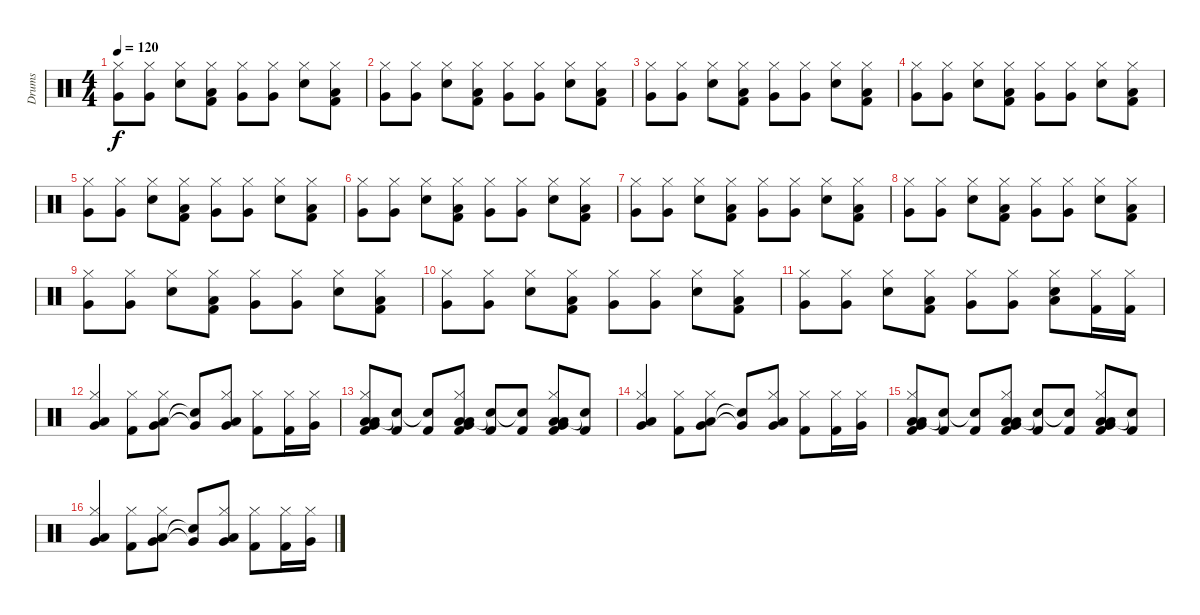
\track ("Drums" "Drums") {instrument percussion}
\staff {score}
\articulation defaults
\ts (4 4)
\tempo 120
\clef neutral
\ks c
("Very Low Tom (hit)" "Hi-Hat (closed)").8{dy f} ("Very Low Tom (hit)" "Hi-Hat (closed)").8 ("Snare (hit) 2" "Hi-Hat (closed)").8 ("Low Floor Tom (hit)" "Kick (hit) 2" "Hi-Hat (closed)").8 ("Very Low Tom (hit)" "Hi-Hat (closed)").8 ("Very Low Tom (hit)" "Hi-Hat (closed)").8 ("Snare (hit) 2" "Hi-Hat (closed)").8 ("Low Floor Tom (hit)" "Kick (hit) 2" "Hi-Hat (closed)").8 |
("Very Low Tom (hit)" "Hi-Hat (closed)").8 ("Very Low Tom (hit)" "Hi-Hat (closed)").8 ("Snare (hit) 2" "Hi-Hat (closed)").8 ("Low Floor Tom (hit)" "Kick (hit) 2" "Hi-Hat (closed)").8 ("Very Low Tom (hit)" "Hi-Hat (closed)").8 ("Very Low Tom (hit)" "Hi-Hat (closed)").8 ("Snare (hit) 2" "Hi-Hat (closed)").8 ("Low Floor Tom (hit)" "Kick (hit) 2" "Hi-Hat (closed)").8 |
("Very Low Tom (hit)" "Hi-Hat (closed)").8 ("Very Low Tom (hit)" "Hi-Hat (closed)").8 ("Snare (hit) 2" "Hi-Hat (closed)").8 ("Low Floor Tom (hit)" "Kick (hit) 2" "Hi-Hat (closed)").8 ("Very Low Tom (hit)" "Hi-Hat (closed)").8 ("Very Low Tom (hit)" "Hi-Hat (closed)").8 ("Snare (hit) 2" "Hi-Hat (closed)").8 ("Low Floor Tom (hit)" "Kick (hit) 2" "Hi-Hat (closed)").8 |
("Very Low Tom (hit)" "Hi-Hat (closed)").8 ("Very Low Tom (hit)" "Hi-Hat (closed)").8 ("Snare (hit) 2" "Hi-Hat (closed)").8 ("Low Floor Tom (hit)" "Kick (hit) 2" "Hi-Hat (closed)").8 ("Very Low Tom (hit)" "Hi-Hat (closed)").8 ("Very Low Tom (hit)" "Hi-Hat (closed)").8 ("Snare (hit) 2" "Hi-Hat (closed)").8 ("Low Floor Tom (hit)" "Kick (hit) 2" "Hi-Hat (closed)").8 |
("Very Low Tom (hit)" "Hi-Hat (closed)").8 ("Very Low Tom (hit)" "Hi-Hat (closed)").8 ("Snare (hit) 2" "Hi-Hat (closed)").8 ("Low Floor Tom (hit)" "Kick (hit) 2" "Hi-Hat (closed)").8 ("Very Low Tom (hit)" "Hi-Hat (closed)").8 ("Very Low Tom (hit)" "Hi-Hat (closed)").8 ("Snare (hit) 2" "Hi-Hat (closed)").8 ("Low Floor Tom (hit)" "Kick (hit) 2" "Hi-Hat (closed)").8 |
("Very Low Tom (hit)" "Hi-Hat (closed)").8 ("Very Low Tom (hit)" "Hi-Hat (closed)").8 ("Snare (hit) 2" "Hi-Hat (closed)").8 ("Low Floor Tom (hit)" "Kick (hit) 2" "Hi-Hat (closed)").8 ("Very Low Tom (hit)" "Hi-Hat (closed)").8 ("Very Low Tom (hit)" "Hi-Hat (closed)").8 ("Snare (hit) 2" "Hi-Hat (closed)").8 ("Low Floor Tom (hit)" "Kick (hit) 2" "Hi-Hat (closed)").8 |
("Very Low Tom (hit)" "Hi-Hat (closed)").8 ("Very Low Tom (hit)" "Hi-Hat (closed)").8 ("Snare (hit) 2" "Hi-Hat (closed)").8 ("Low Floor Tom (hit)" "Kick (hit) 2" "Hi-Hat (closed)").8 ("Very Low Tom (hit)" "Hi-Hat (closed)").8 ("Very Low Tom (hit)" "Hi-Hat (closed)").8 ("Snare (hit) 2" "Hi-Hat (closed)").8 ("Low Floor Tom (hit)" "Kick (hit) 2" "Hi-Hat (closed)").8 |
("Very Low Tom (hit)" "Hi-Hat (closed)").8 ("Very Low Tom (hit)" "Hi-Hat (closed)").8 ("Snare (hit) 2" "Hi-Hat (closed)").8 ("Low Floor Tom (hit)" "Kick (hit) 2" "Hi-Hat (closed)").8 ("Very Low Tom (hit)" "Hi-Hat (closed)").8 ("Very Low Tom (hit)" "Hi-Hat (closed)").8 ("Snare (hit) 2" "Hi-Hat (closed)").8 ("Low Floor Tom (hit)" "Kick (hit) 2" "Hi-Hat (closed)").8 |
("Very Low Tom (hit)" "Hi-Hat (closed)").8 ("Very Low Tom (hit)" "Hi-Hat (closed)").8 ("Snare (hit) 2" "Hi-Hat (closed)").8 ("Low Floor Tom (hit)" "Kick (hit) 2" "Hi-Hat (closed)").8 ("Very Low Tom (hit)" "Hi-Hat (closed)").8 ("Very Low Tom (hit)" "Hi-Hat (closed)").8 ("Snare (hit) 2" "Hi-Hat (closed)").8 ("Low Floor Tom (hit)" "Kick (hit) 2" "Hi-Hat (closed)").8 |
("Very Low Tom (hit)" "Hi-Hat (closed)").8 ("Very Low Tom (hit)" "Hi-Hat (closed)").8 ("Snare (hit) 2" "Hi-Hat (closed)").8 ("Low Floor Tom (hit)" "Kick (hit) 2" "Hi-Hat (closed)").8 ("Very Low Tom (hit)" "Hi-Hat (closed)").8 ("Very Low Tom (hit)" "Hi-Hat (closed)").8 ("Snare (hit) 2" "Hi-Hat (closed)").8 ("Low Floor Tom (hit)" "Kick (hit) 2" "Hi-Hat (closed)").8 |
("Very Low Tom (hit)" "Hi-Hat (closed)").8 ("Very Low Tom (hit)" "Hi-Hat (closed)").8 ("Snare (hit) 2" "Hi-Hat (closed)").8 ("Low Floor Tom (hit)" "Kick (hit) 2" "Hi-Hat (closed)").8 ("Very Low Tom (hit)" "Hi-Hat (closed)").8 ("Very Low Tom (hit)" "Hi-Hat (closed)").8 ("Low Floor Tom (hit)" "Snare (hit) 2" "Hi-Hat (closed)").8 ("Kick (hit) 2" "Hi-Hat (closed)").16 ("Kick (hit) 2" "Hi-Hat (closed)").16 |
("Low Floor Tom (hit)" "Very Low Tom (hit)" "Hi-Hat (closed)").4 ("Kick (hit) 2" "Hi-Hat (closed)").8 ("Low Floor Tom (hit)" "Very Low Tom (hit)" "Hi-Hat (closed)").8 ("Snare (hit)"{t} "Very Low Tom (hit)"{t}).8 ("Low Floor Tom (hit)" "Very Low Tom (hit)" "Hi-Hat (closed)").8 ("Kick (hit) 2" "Hi-Hat (closed)").8 ("Kick (hit) 2" "Hi-Hat (closed)").16 ("Very Low Tom (hit)" "Hi-Hat (closed)").16 |
("Low Floor Tom (hit)" "Low Tom (hit)" "Kick (hit) 2" "Very Low Tom (hit)" "Hi-Hat (closed)").8 ("Kick (hit) 2" "Snare (hit)"{t}).8 ("Kick (hit) 2" "Snare (hit)"{t}).8 ("Low Floor Tom (hit)" "Low Tom (hit)" "Kick (hit) 2" "Very Low Tom (hit)" "Hi-Hat (closed)").8 ("Kick (hit) 2" "Snare (hit)"{t}).8 ("Kick (hit) 2" "Snare (hit)"{t}).8 ("Low Floor Tom (hit)" "Low Tom (hit)" "Kick (hit) 2" "Very Low Tom (hit)" "Hi-Hat (closed)").8 ("Kick (hit) 2" "Snare (hit)"{t}).8 |
("Low Floor Tom (hit)" "Very Low Tom (hit)" "Hi-Hat (closed)").4 ("Kick (hit) 2" "Hi-Hat (closed)").8 ("Low Floor Tom (hit)" "Very Low Tom (hit)" "Hi-Hat (closed)").8 ("Snare (hit)"{t} "Very Low Tom (hit)"{t}).8 ("Low Floor Tom (hit)" "Very Low Tom (hit)" "Hi-Hat (closed)").8 ("Kick (hit) 2" "Hi-Hat (closed)").8 ("Kick (hit) 2" "Hi-Hat (closed)").16 ("Very Low Tom (hit)" "Hi-Hat (closed)").16 |
("Low Floor Tom (hit)" "Low Tom (hit)" "Kick (hit) 2" "Very Low Tom (hit)" "Hi-Hat (closed)").8 ("Kick (hit) 2" "Snare (hit)"{t}).8 ("Kick (hit) 2" "Snare (hit)"{t}).8 ("Low Floor Tom (hit)" "Low Tom (hit)" "Kick (hit) 2" "Very Low Tom (hit)" "Hi-Hat (closed)").8 ("Kick (hit) 2" "Snare (hit)"{t}).8 ("Kick (hit) 2" "Snare (hit)"{t}).8 ("Low Floor Tom (hit)" "Low Tom (hit)" "Kick (hit) 2" "Very Low Tom (hit)" "Hi-Hat (closed)").8 ("Kick (hit) 2" "Snare (hit)"{t}).8 |
("Low Floor Tom (hit)" "Very Low Tom (hit)" "Hi-Hat (closed)").4 ("Kick (hit) 2" "Hi-Hat (closed)").8 ("Low Floor Tom (hit)" "Very Low Tom (hit)" "Hi-Hat (closed)").8 ("Snare (hit)"{t} "Very Low Tom (hit)"{t}).8 ("Low Floor Tom (hit)" "Very Low Tom (hit)" "Hi-Hat (closed)").8 ("Kick (hit) 2" "Hi-Hat (closed)").8 ("Kick (hit) 2" "Hi-Hat (closed)").16 ("Very Low Tom (hit)" "Hi-Hat (closed)").16
